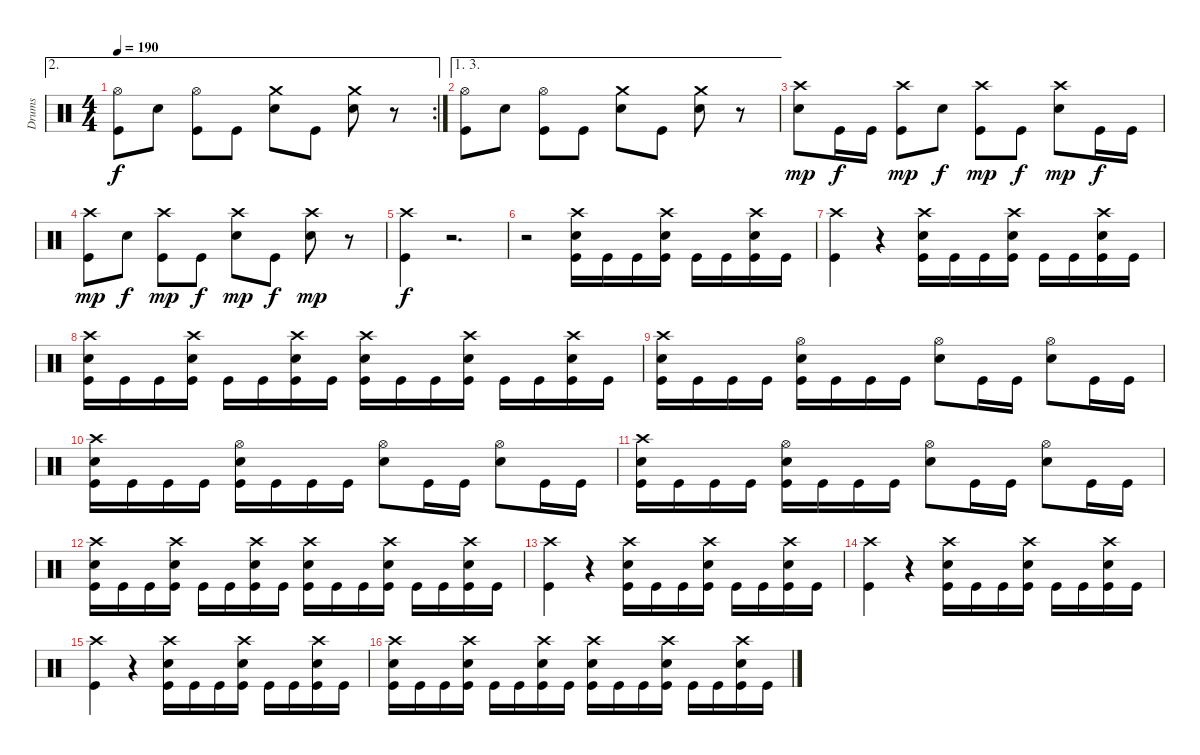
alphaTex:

\track ("Drums" "Drums") {instrument percussion}
\staff {score}
\articulation defaults
\ae 2
\rc 2
\ts (4 4)
\tempo 190
\clef neutral
\ks c
("Hi-Hat (open)" "Kick (hit)").8{dy f} "Electric Snare (hit)".8 ("Hi-Hat (open)" "Kick (hit)").8 "Kick (hit)".8 ("Crash medium (hit)" "Electric Snare (hit)").8 "Kick (hit)".8 ("Crash medium (hit)" "Electric Snare (hit)").8 r.8 |
\ae (1 3)
("Hi-Hat (open)" "Kick (hit)").8 "Electric Snare (hit)".8 ("Hi-Hat (open)" "Kick (hit)").8 "Kick (hit)".8 ("Crash medium (hit)" "Electric Snare (hit)").8 "Kick (hit)".8 ("Crash medium (hit)" "Electric Snare (hit)").8 r.8 |
("Crash high (hit)" "Electric Snare (hit)").8{dy mp} "Kick (hit)".16{dy f} "Kick (hit)".16 ("Crash high (hit)" "Kick (hit)").8{dy mp} "Electric Snare (hit)".8{dy f} ("Crash high (hit)" "Kick (hit)").8{dy mp} "Kick (hit)".8{dy f} ("Crash high (hit)" "Electric Snare (hit)").8{dy mp} "Kick (hit)".16{dy f} "Kick (hit)".16 |
("Crash high (hit)" "Kick (hit)").8{dy mp} "Electric Snare (hit)".8{dy f} ("Crash high (hit)" "Kick (hit)").8{dy mp} "Kick (hit)".8{dy f} ("Crash high (hit)" "Electric Snare (hit)").8{dy mp} "Kick (hit)".8{dy f} ("Crash high (hit)" "Electric Snare (hit)").8{dy mp} r.8 |
("Crash high (hit)" "Kick (hit)").4{dy f} r.2{d volume 6} |
r.2 ("Crash high (hit)" "Electric Snare (hit)" "Kick (hit)").16{volume 16} "Kick (hit)".16 "Kick (hit)".16 ("Crash high (hit)" "Electric Snare (hit)" "Kick (hit)").16 "Kick (hit)".16 "Kick (hit)".16 ("Crash high (hit)" "Electric Snare (hit)" "Kick (hit)").16 "Kick (hit)".16 |
("Crash high (hit)" "Kick (hit)").4 r.4{volume 6} ("Crash high (hit)" "Electric Snare (hit)" "Kick (hit)").16{volume 16} "Kick (hit)".16 "Kick (hit)".16 ("Crash high (hit)" "Electric Snare (hit)" "Kick (hit)").16 "Kick (hit)".16 "Kick (hit)".16 ("Crash high (hit)" "Electric Snare (hit)" "Kick (hit)").16 "Kick (hit)".16 |
("Crash high (hit)" "Electric Snare (hit)" "Kick (hit)").16 "Kick (hit)".16 "Kick (hit)".16 ("Crash high (hit)" "Electric Snare (hit)" "Kick (hit)").16 "Kick (hit)".16 "Kick (hit)".16 ("Crash high (hit)" "Electric Snare (hit)" "Kick (hit)").16 "Kick (hit)".16 ("Crash high (hit)" "Electric Snare (hit)" "Kick (hit)").16 "Kick (hit)".16 "Kick (hit)".16 ("Crash high (hit)" "Electric Snare (hit)" "Kick (hit)").16 "Kick (hit)".16 "Kick (hit)".16 ("Crash high (hit)" "Electric Snare (hit)" "Kick (hit)").16 "Kick (hit)".16 |
("Crash high (hit)" "Electric Snare (hit)" "Kick (hit)").16 "Kick (hit)".16 "Kick (hit)".16 "Kick (hit)".16 ("Hi-Hat (open)" "Electric Snare (hit)" "Kick (hit)").16 "Kick (hit)".16 "Kick (hit)".16 "Kick (hit)".16 ("Hi-Hat (open)" "Electric Snare (hit)").8 "Kick (hit)".16 "Kick (hit)".16 ("Hi-Hat (open)" "Electric Snare (hit)").8 "Kick (hit)".16 "Kick (hit)".16 |
("Crash high (hit)" "Electric Snare (hit)" "Kick (hit)").16 "Kick (hit)".16 "Kick (hit)".16 "Kick (hit)".16 ("Hi-Hat (open)" "Electric Snare (hit)" "Kick (hit)").16 "Kick (hit)".16 "Kick (hit)".16 "Kick (hit)".16 ("Hi-Hat (open)" "Electric Snare (hit)").8 "Kick (hit)".16 "Kick (hit)".16 ("Hi-Hat (open)" "Electric Snare (hit)").8 "Kick (hit)".16 "Kick (hit)".16 |
("Crash high (hit)" "Electric Snare (hit)" "Kick (hit)").16 "Kick (hit)".16 "Kick (hit)".16 "Kick (hit)".16 ("Hi-Hat (open)" "Electric Snare (hit)" "Kick (hit)").16 "Kick (hit)".16 "Kick (hit)".16 "Kick (hit)".16 ("Hi-Hat (open)" "Electric Snare (hit)").8 "Kick (hit)".16 "Kick (hit)".16 ("Hi-Hat (open)" "Electric Snare (hit)").8 "Kick (hit)".16 "Kick (hit)".16 |
("Crash high (hit)" "Electric Snare (hit)" "Kick (hit)").16 "Kick (hit)".16 "Kick (hit)".16 ("Crash high (hit)" "Electric Snare (hit)" "Kick (hit)").16 "Kick (hit)".16 "Kick (hit)".16 ("Crash high (hit)" "Electric Snare (hit)" "Kick (hit)").16 "Kick (hit)".16 ("Crash high (hit)" "Electric Snare (hit)" "Kick (hit)").16 "Kick (hit)".16 "Kick (hit)".16 ("Crash high (hit)" "Electric Snare (hit)" "Kick (hit)").16 "Kick (hit)".16 "Kick (hit)".16 ("Crash high (hit)" "Electric Snare (hit)" "Kick (hit)").16 "Kick (hit)".16 |
("Crash high (hit)" "Kick (hit)").4 r.4{volume 6} ("Crash high (hit)" "Electric Snare (hit)" "Kick (hit)").16{volume 16} "Kick (hit)".16 "Kick (hit)".16 ("Crash high (hit)" "Electric Snare (hit)" "Kick (hit)").16 "Kick (hit)".16 "Kick (hit)".16 ("Crash high (hit)" "Electric Snare (hit)" "Kick (hit)").16 "Kick (hit)".16 |
("Crash high (hit)" "Kick (hit)").4 r.4{volume 6} ("Crash high (hit)" "Electric Snare (hit)" "Kick (hit)").16{volume 16} "Kick (hit)".16 "Kick (hit)".16 ("Crash high (hit)" "Electric Snare (hit)" "Kick (hit)").16 "Kick (hit)".16 "Kick (hit)".16 ("Crash high (hit)" "Electric Snare (hit)" "Kick (hit)").16 "Kick (hit)".16 |
("Crash high (hit)" "Kick (hit)").4 r.4{volume 6} ("Crash high (hit)" "Electric Snare (hit)" "Kick (hit)").16{volume 16} "Kick (hit)".16 "Kick (hit)".16 ("Crash high (hit)" "Electric Snare (hit)" "Kick (hit)").16 "Kick (hit)".16 "Kick (hit)".16 ("Crash high (hit)" "Electric Snare (hit)" "Kick (hit)").16 "Kick (hit)".16 |
("Crash high (hit)" "Electric Snare (hit)" "Kick (hit)").16 "Kick (hit)".16 "Kick (hit)".16 ("Crash high (hit)" "Electric Snare (hit)" "Kick (hit)").16 "Kick (hit)".16 "Kick (hit)".16 ("Crash high (hit)" "Electric Snare (hit)" "Kick (hit)").16 "Kick (hit)".16 ("Crash high (hit)" "Electric Snare (hit)" "Kick (hit)").16 "Kick (hit)".16 "Kick (hit)".16 ("Crash high (hit)" "Electric Snare (hit)" "Kick (hit)").16 "Kick (hit)".16 "Kick (hit)".16 ("Crash high (hit)" "Electric Snare (hit)" "Kick (hit)").16 "Kick (hit)".16
